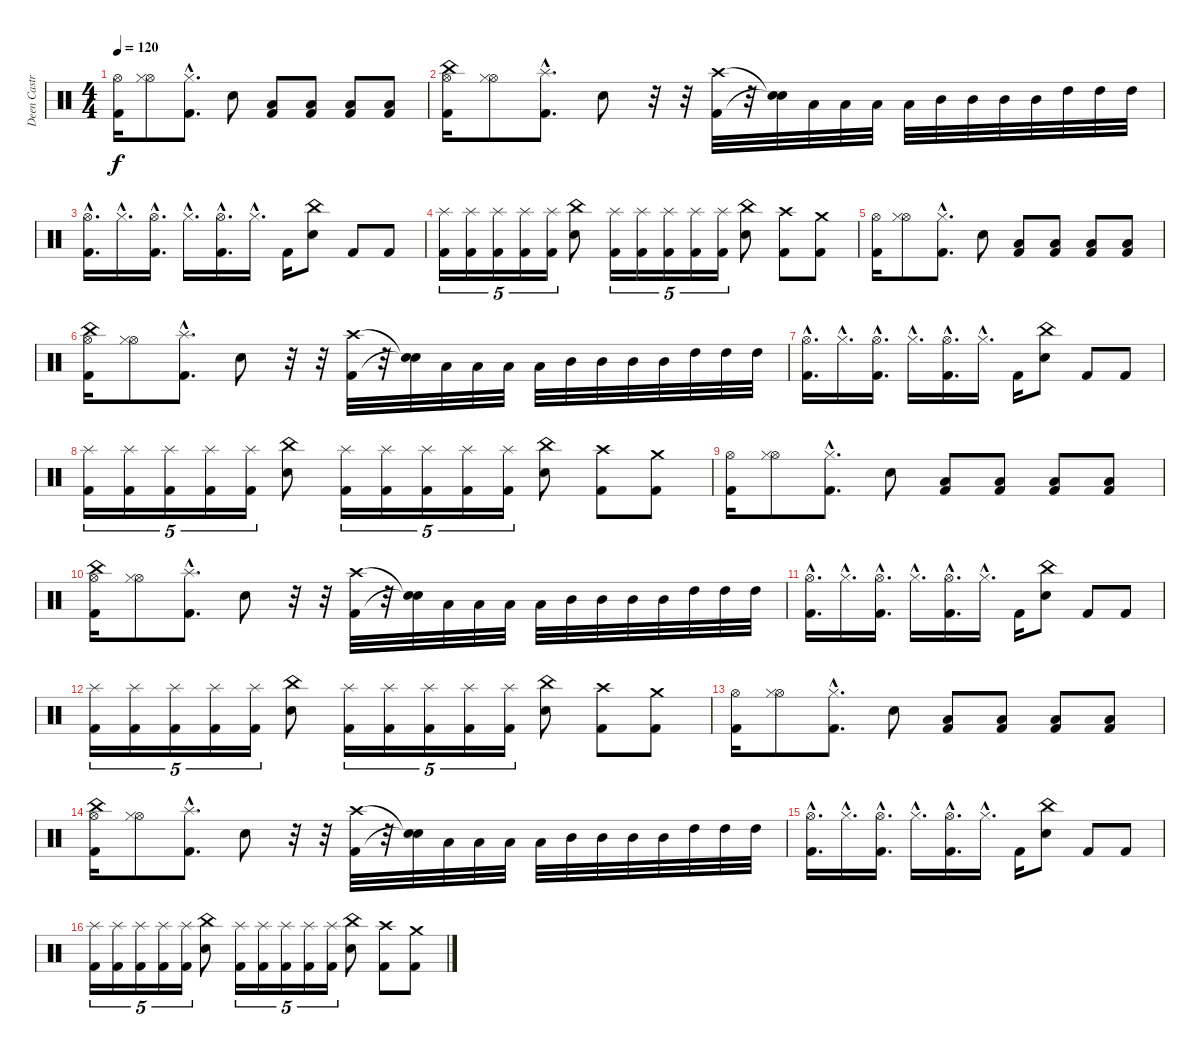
\track ("Deen Castronovo" "Deen Castr") {instrument percussion}
\staff {score}
\articulation defaults
\ts (4 4)
\tempo 120
\clef neutral
\ks c
("Kick (hit) 2" "Hi-Hat (open)").16{dy f} ("Hi-Hat (open)" "Hi-Hat (closed)").8 ("Kick (hit) 2"{hac} "Hi-Hat (closed)"{hac}).8{d} "Electric Snare (hit)".8 ("Low Floor Tom (hit)" "Kick (hit) 2").8 ("Low Floor Tom (hit)" "Kick (hit) 2").8 ("Low Floor Tom (hit)" "Kick (hit) 2").8 ("Low Floor Tom (hit)" "Kick (hit) 2").8 |
("Kick (hit) 2" "Hi-Hat (open)" "China (hit)").16 ("Hi-Hat (open)" "Hi-Hat (closed)").8 ("Kick (hit) 2"{hac} "Splash (hit)"{hac}).8{d} "Electric Snare (hit)".8 r.32 r.32 ("Kick (hit) 2" "Crash high (hit)").32 r.32 ("Snare (hit)"{t} "Snare (hit)"{t}).32 "Low Tom (hit)".32 "Low Tom (hit)".32 "Low Tom (hit)".32 "Low Tom (hit)".32 "Mid Tom (hit)".32 "Mid Tom (hit)".32 "Mid Tom (hit)".32 "Mid Tom (hit)".32 "High Tom (hit)".32 "High Tom (hit)".32 "High Tom (hit)".32 |
("Kick (hit) 2"{hac} "Hi-Hat (open)"{hac}).16{d} "Hi-Hat (closed)"{hac}.16{d} ("Kick (hit) 2"{hac} "Hi-Hat (open)"{hac}).16{d} "Hi-Hat (closed)"{hac}.16{d} ("Kick (hit) 2"{hac} "Hi-Hat (open)"{hac}).16{d} "Hi-Hat (closed)"{hac}.16{d} "Kick (hit) 2".16 ("Electric Snare (hit)" "China (hit)").8 "Kick (hit) 2".8 "Kick (hit) 2".8 |
("Kick (hit) 2" "Splash (hit)").16{tu (5 4)} ("Kick (hit) 2" "Splash (hit)").16{tu (5 4)} ("Kick (hit) 2" "Splash (hit)").16{tu (5 4)} ("Kick (hit) 2" "Splash (hit)").16{tu (5 4)} ("Kick (hit) 2" "Splash (hit)").16{tu (5 4)} ("Electric Snare (hit)" "China (hit)").8 ("Kick (hit) 2" "Splash (hit)").16{tu (5 4)} ("Kick (hit) 2" "Splash (hit)").16{tu (5 4)} ("Kick (hit) 2" "Splash (hit)").16{tu (5 4)} ("Kick (hit) 2" "Splash (hit)").16{tu (5 4)} ("Kick (hit) 2" "Splash (hit)").16{tu (5 4)} ("Electric Snare (hit)" "China (hit)").8 ("Kick (hit) 2" "Crash high (hit)").8 ("Kick (hit) 2" "Crash medium (hit)").8 |
("Kick (hit) 2" "Hi-Hat (open)").16 ("Hi-Hat (open)" "Hi-Hat (closed)").8 ("Kick (hit) 2"{hac} "Hi-Hat (closed)"{hac}).8{d} "Electric Snare (hit)".8 ("Low Floor Tom (hit)" "Kick (hit) 2").8 ("Low Floor Tom (hit)" "Kick (hit) 2").8 ("Low Floor Tom (hit)" "Kick (hit) 2").8 ("Low Floor Tom (hit)" "Kick (hit) 2").8 |
("Kick (hit) 2" "Hi-Hat (open)" "China (hit)").16 ("Hi-Hat (open)" "Hi-Hat (closed)").8 ("Kick (hit) 2"{hac} "Splash (hit)"{hac}).8{d} "Electric Snare (hit)".8 r.32 r.32 ("Kick (hit) 2" "Crash high (hit)").32 r.32 ("Snare (hit)"{t} "Snare (hit)"{t}).32 "Low Tom (hit)".32 "Low Tom (hit)".32 "Low Tom (hit)".32 "Low Tom (hit)".32 "Mid Tom (hit)".32 "Mid Tom (hit)".32 "Mid Tom (hit)".32 "Mid Tom (hit)".32 "High Tom (hit)".32 "High Tom (hit)".32 "High Tom (hit)".32 |
("Kick (hit) 2"{hac} "Hi-Hat (open)"{hac}).16{d} "Hi-Hat (closed)"{hac}.16{d} ("Kick (hit) 2"{hac} "Hi-Hat (open)"{hac}).16{d} "Hi-Hat (closed)"{hac}.16{d} ("Kick (hit) 2"{hac} "Hi-Hat (open)"{hac}).16{d} "Hi-Hat (closed)"{hac}.16{d} "Kick (hit) 2".16 ("Electric Snare (hit)" "China (hit)").8 "Kick (hit) 2".8 "Kick (hit) 2".8 |
("Kick (hit) 2" "Splash (hit)").16{tu (5 4)} ("Kick (hit) 2" "Splash (hit)").16{tu (5 4)} ("Kick (hit) 2" "Splash (hit)").16{tu (5 4)} ("Kick (hit) 2" "Splash (hit)").16{tu (5 4)} ("Kick (hit) 2" "Splash (hit)").16{tu (5 4)} ("Electric Snare (hit)" "China (hit)").8 ("Kick (hit) 2" "Splash (hit)").16{tu (5 4)} ("Kick (hit) 2" "Splash (hit)").16{tu (5 4)} ("Kick (hit) 2" "Splash (hit)").16{tu (5 4)} ("Kick (hit) 2" "Splash (hit)").16{tu (5 4)} ("Kick (hit) 2" "Splash (hit)").16{tu (5 4)} ("Electric Snare (hit)" "China (hit)").8 ("Kick (hit) 2" "Crash high (hit)").8 ("Kick (hit) 2" "Crash medium (hit)").8 |
("Kick (hit) 2" "Hi-Hat (open)").16 ("Hi-Hat (open)" "Hi-Hat (closed)").8 ("Kick (hit) 2"{hac} "Hi-Hat (closed)"{hac}).8{d} "Electric Snare (hit)".8 ("Low Floor Tom (hit)" "Kick (hit) 2").8 ("Low Floor Tom (hit)" "Kick (hit) 2").8 ("Low Floor Tom (hit)" "Kick (hit) 2").8 ("Low Floor Tom (hit)" "Kick (hit) 2").8 |
("Kick (hit) 2" "Hi-Hat (open)" "China (hit)").16 ("Hi-Hat (open)" "Hi-Hat (closed)").8 ("Kick (hit) 2"{hac} "Splash (hit)"{hac}).8{d} "Electric Snare (hit)".8 r.32 r.32 ("Kick (hit) 2" "Crash high (hit)").32 r.32 ("Snare (hit)"{t} "Snare (hit)"{t}).32 "Low Tom (hit)".32 "Low Tom (hit)".32 "Low Tom (hit)".32 "Low Tom (hit)".32 "Mid Tom (hit)".32 "Mid Tom (hit)".32 "Mid Tom (hit)".32 "Mid Tom (hit)".32 "High Tom (hit)".32 "High Tom (hit)".32 "High Tom (hit)".32 |
("Kick (hit) 2"{hac} "Hi-Hat (open)"{hac}).16{d} "Hi-Hat (closed)"{hac}.16{d} ("Kick (hit) 2"{hac} "Hi-Hat (open)"{hac}).16{d} "Hi-Hat (closed)"{hac}.16{d} ("Kick (hit) 2"{hac} "Hi-Hat (open)"{hac}).16{d} "Hi-Hat (closed)"{hac}.16{d} "Kick (hit) 2".16 ("Electric Snare (hit)" "China (hit)").8 "Kick (hit) 2".8 "Kick (hit) 2".8 |
("Kick (hit) 2" "Splash (hit)").16{tu (5 4)} ("Kick (hit) 2" "Splash (hit)").16{tu (5 4)} ("Kick (hit) 2" "Splash (hit)").16{tu (5 4)} ("Kick (hit) 2" "Splash (hit)").16{tu (5 4)} ("Kick (hit) 2" "Splash (hit)").16{tu (5 4)} ("Electric Snare (hit)" "China (hit)").8 ("Kick (hit) 2" "Splash (hit)").16{tu (5 4)} ("Kick (hit) 2" "Splash (hit)").16{tu (5 4)} ("Kick (hit) 2" "Splash (hit)").16{tu (5 4)} ("Kick (hit) 2" "Splash (hit)").16{tu (5 4)} ("Kick (hit) 2" "Splash (hit)").16{tu (5 4)} ("Electric Snare (hit)" "China (hit)").8 ("Kick (hit) 2" "Crash high (hit)").8 ("Kick (hit) 2" "Crash medium (hit)").8 |
("Kick (hit) 2" "Hi-Hat (open)").16 ("Hi-Hat (open)" "Hi-Hat (closed)").8 ("Kick (hit) 2"{hac} "Hi-Hat (closed)"{hac}).8{d} "Electric Snare (hit)".8 ("Low Floor Tom (hit)" "Kick (hit) 2").8 ("Low Floor Tom (hit)" "Kick (hit) 2").8 ("Low Floor Tom (hit)" "Kick (hit) 2").8 ("Low Floor Tom (hit)" "Kick (hit) 2").8 |
("Kick (hit) 2" "Hi-Hat (open)" "China (hit)").16 ("Hi-Hat (open)" "Hi-Hat (closed)").8 ("Kick (hit) 2"{hac} "Splash (hit)"{hac}).8{d} "Electric Snare (hit)".8 r.32 r.32 ("Kick (hit) 2" "Crash high (hit)").32 r.32 ("Snare (hit)"{t} "Snare (hit)"{t}).32 "Low Tom (hit)".32 "Low Tom (hit)".32 "Low Tom (hit)".32 "Low Tom (hit)".32 "Mid Tom (hit)".32 "Mid Tom (hit)".32 "Mid Tom (hit)".32 "Mid Tom (hit)".32 "High Tom (hit)".32 "High Tom (hit)".32 "High Tom (hit)".32 |
("Kick (hit) 2"{hac} "Hi-Hat (open)"{hac}).16{d} "Hi-Hat (closed)"{hac}.16{d} ("Kick (hit) 2"{hac} "Hi-Hat (open)"{hac}).16{d} "Hi-Hat (closed)"{hac}.16{d} ("Kick (hit) 2"{hac} "Hi-Hat (open)"{hac}).16{d} "Hi-Hat (closed)"{hac}.16{d} "Kick (hit) 2".16 ("Electric Snare (hit)" "China (hit)").8 "Kick (hit) 2".8 "Kick (hit) 2".8 |
("Kick (hit) 2" "Splash (hit)").16{tu (5 4)} ("Kick (hit) 2" "Splash (hit)").16{tu (5 4)} ("Kick (hit) 2" "Splash (hit)").16{tu (5 4)} ("Kick (hit) 2" "Splash (hit)").16{tu (5 4)} ("Kick (hit) 2" "Splash (hit)").16{tu (5 4)} ("Electric Snare (hit)" "China (hit)").8 ("Kick (hit) 2" "Splash (hit)").16{tu (5 4)} ("Kick (hit) 2" "Splash (hit)").16{tu (5 4)} ("Kick (hit) 2" "Splash (hit)").16{tu (5 4)} ("Kick (hit) 2" "Splash (hit)").16{tu (5 4)} ("Kick (hit) 2" "Splash (hit)").16{tu (5 4)} ("Electric Snare (hit)" "China (hit)").8 ("Kick (hit) 2" "Crash high (hit)").8 ("Kick (hit) 2" "Crash medium (hit)").8
